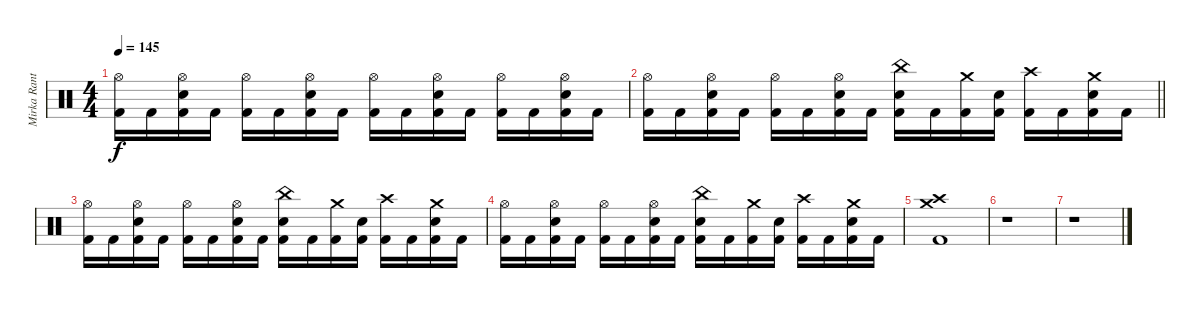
\track ("Mirka Rantanen" "Mirka Rant") {instrument percussion}
\staff {score}
\articulation defaults
\ts (4 4)
\tempo 145
\clef neutral
\ks c
("Hi-Hat (open)" "Kick (hit) 2").16{dy f} "Kick (hit) 2".16 ("Hi-Hat (open)" "Electric Snare (hit)" "Kick (hit) 2").16 "Kick (hit) 2".16 ("Hi-Hat (open)" "Kick (hit) 2").16 "Kick (hit) 2".16 ("Hi-Hat (open)" "Electric Snare (hit)" "Kick (hit) 2").16 "Kick (hit) 2".16 ("Hi-Hat (open)" "Kick (hit) 2").16 "Kick (hit) 2".16 ("Hi-Hat (open)" "Electric Snare (hit)" "Kick (hit) 2").16 "Kick (hit) 2".16 ("Hi-Hat (open)" "Kick (hit) 2").16 "Kick (hit) 2".16 ("Hi-Hat (open)" "Electric Snare (hit)" "Kick (hit) 2").16 "Kick (hit) 2".16 |
\barLineRight lightlight
("Hi-Hat (open)" "Kick (hit) 2").16 "Kick (hit) 2".16 ("Hi-Hat (open)" "Electric Snare (hit)" "Kick (hit) 2").16 "Kick (hit) 2".16 ("Hi-Hat (open)" "Kick (hit) 2").16 "Kick (hit) 2".16 ("Hi-Hat (open)" "Electric Snare (hit)" "Kick (hit) 2").16 "Kick (hit) 2".16 ("China (hit)" "Electric Snare (hit)" "Kick (hit) 2").16 "Kick (hit) 2".16 ("Crash medium (hit)" "Kick (hit) 2").16 ("Electric Snare (hit)" "Kick (hit) 2").16 ("Crash high (hit)" "Kick (hit) 2").16 "Kick (hit) 2".16 ("Crash medium (hit)" "Electric Snare (hit)" "Kick (hit) 2").16 "Kick (hit) 2".16 |
("Hi-Hat (open)" "Kick (hit) 2").16 "Kick (hit) 2".16 ("Hi-Hat (open)" "Electric Snare (hit)" "Kick (hit) 2").16 "Kick (hit) 2".16 ("Hi-Hat (open)" "Kick (hit) 2").16 "Kick (hit) 2".16 ("Hi-Hat (open)" "Electric Snare (hit)" "Kick (hit) 2").16 "Kick (hit) 2".16 ("China (hit)" "Electric Snare (hit)" "Kick (hit) 2").16 "Kick (hit) 2".16 ("Crash medium (hit)" "Kick (hit) 2").16 ("Electric Snare (hit)" "Kick (hit) 2").16 ("Crash high (hit)" "Kick (hit) 2").16 "Kick (hit) 2".16 ("Crash medium (hit)" "Electric Snare (hit)" "Kick (hit) 2").16 "Kick (hit) 2".16 |
("Hi-Hat (open)" "Kick (hit) 2").16 "Kick (hit) 2".16 ("Hi-Hat (open)" "Electric Snare (hit)" "Kick (hit) 2").16 "Kick (hit) 2".16 ("Hi-Hat (open)" "Kick (hit) 2").16 "Kick (hit) 2".16 ("Hi-Hat (open)" "Electric Snare (hit)" "Kick (hit) 2").16 "Kick (hit) 2".16 ("China (hit)" "Electric Snare (hit)" "Kick (hit) 2").16 "Kick (hit) 2".16 ("Crash medium (hit)" "Kick (hit) 2").16 ("Electric Snare (hit)" "Kick (hit) 2").16 ("Crash high (hit)" "Kick (hit) 2").16 "Kick (hit) 2".16 ("Crash medium (hit)" "Electric Snare (hit)" "Kick (hit) 2").16 "Kick (hit) 2".16 |
("Crash high (hit)" "Crash medium (hit)" "Kick (hit) 2").1 |
r.1 |
r.1
